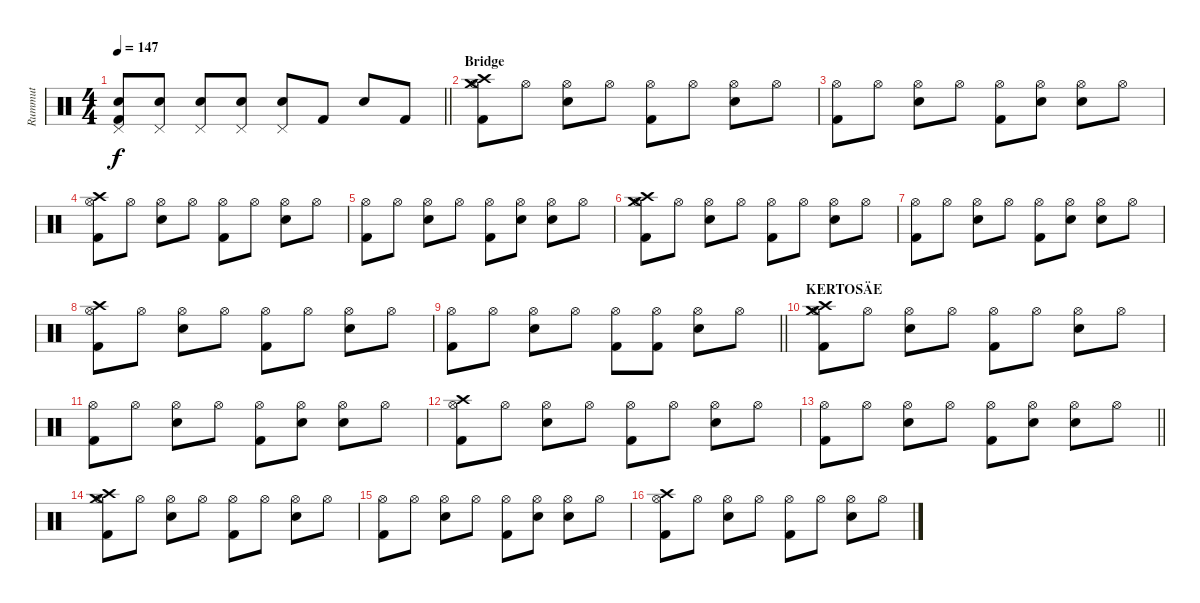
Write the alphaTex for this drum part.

\track ("Rummut" "Rummut") {instrument percussion}
\staff {score}
\articulation defaults
\ts (4 4)
\tempo 147
\clef neutral
\barLineRight lightlight
\ks c
("Pedal Hi-Hat (hit)" "Snare (hit) 2" "Kick (hit) 2").8{dy f} ("Pedal Hi-Hat (hit)" "Snare (hit) 2").8 ("Pedal Hi-Hat (hit)" "Snare (hit) 2").8 ("Pedal Hi-Hat (hit)" "Snare (hit) 2").8 ("Pedal Hi-Hat (hit)" "Snare (hit) 2").8 "Kick (hit) 2".8 "Snare (hit) 2".8 "Kick (hit) 2".8 |
\section ("" "Bridge")
("Crash high (hit)" "Crash medium (hit)" "Hi-Hat (open)" "Kick (hit) 2").8 "Hi-Hat (open)".8 ("Hi-Hat (open)" "Snare (hit) 2").8 "Hi-Hat (open)".8 ("Hi-Hat (open)" "Kick (hit) 2").8 "Hi-Hat (open)".8 ("Hi-Hat (open)" "Snare (hit) 2").8 "Hi-Hat (open)".8 |
("Hi-Hat (open)" "Kick (hit) 2").8 "Hi-Hat (open)".8 ("Hi-Hat (open)" "Snare (hit) 2").8 "Hi-Hat (open)".8 ("Hi-Hat (open)" "Kick (hit) 2").8 ("Hi-Hat (open)" "Snare (hit) 2").8 ("Hi-Hat (open)" "Snare (hit) 2").8 "Hi-Hat (open)".8 |
("Crash high (hit)" "Hi-Hat (open)" "Kick (hit) 2").8 "Hi-Hat (open)".8 ("Hi-Hat (open)" "Snare (hit) 2").8 "Hi-Hat (open)".8 ("Hi-Hat (open)" "Kick (hit) 2").8 "Hi-Hat (open)".8 ("Hi-Hat (open)" "Snare (hit) 2").8 "Hi-Hat (open)".8 |
("Hi-Hat (open)" "Kick (hit) 2").8 "Hi-Hat (open)".8 ("Hi-Hat (open)" "Snare (hit) 2").8 "Hi-Hat (open)".8 ("Hi-Hat (open)" "Kick (hit) 2").8 ("Hi-Hat (open)" "Snare (hit) 2").8 ("Hi-Hat (open)" "Snare (hit) 2").8 "Hi-Hat (open)".8 |
("Crash high (hit)" "Crash medium (hit)" "Hi-Hat (open)" "Kick (hit) 2").8 "Hi-Hat (open)".8 ("Hi-Hat (open)" "Snare (hit) 2").8 "Hi-Hat (open)".8 ("Hi-Hat (open)" "Kick (hit) 2").8 "Hi-Hat (open)".8 ("Hi-Hat (open)" "Snare (hit) 2").8 "Hi-Hat (open)".8 |
("Hi-Hat (open)" "Kick (hit) 2").8 "Hi-Hat (open)".8 ("Hi-Hat (open)" "Snare (hit) 2").8 "Hi-Hat (open)".8 ("Hi-Hat (open)" "Kick (hit) 2").8 ("Hi-Hat (open)" "Snare (hit) 2").8 ("Hi-Hat (open)" "Snare (hit) 2").8 "Hi-Hat (open)".8 |
("Crash high (hit)" "Hi-Hat (open)" "Kick (hit) 2").8 "Hi-Hat (open)".8 ("Hi-Hat (open)" "Snare (hit) 2").8 "Hi-Hat (open)".8 ("Hi-Hat (open)" "Kick (hit) 2").8 "Hi-Hat (open)".8 ("Hi-Hat (open)" "Snare (hit) 2").8 "Hi-Hat (open)".8 |
\barLineRight lightlight
("Hi-Hat (open)" "Kick (hit) 2").8 "Hi-Hat (open)".8 ("Hi-Hat (open)" "Snare (hit) 2").8 "Hi-Hat (open)".8 ("Hi-Hat (open)" "Kick (hit) 2").8 ("Hi-Hat (open)" "Kick (hit) 2").8 ("Hi-Hat (open)" "Snare (hit) 2").8 "Hi-Hat (open)".8 |
\section ("" "KERTOSÄE")
("Crash high (hit)" "Crash medium (hit)" "Hi-Hat (open)" "Kick (hit) 2").8 "Hi-Hat (open)".8 ("Hi-Hat (open)" "Snare (hit) 2").8 "Hi-Hat (open)".8 ("Hi-Hat (open)" "Kick (hit) 2").8 "Hi-Hat (open)".8 ("Hi-Hat (open)" "Snare (hit) 2").8 "Hi-Hat (open)".8 |
("Hi-Hat (open)" "Kick (hit) 2").8 "Hi-Hat (open)".8 ("Hi-Hat (open)" "Snare (hit) 2").8 "Hi-Hat (open)".8 ("Hi-Hat (open)" "Kick (hit) 2").8 ("Hi-Hat (open)" "Snare (hit) 2").8 ("Hi-Hat (open)" "Snare (hit) 2").8 "Hi-Hat (open)".8 |
("Crash high (hit)" "Hi-Hat (open)" "Kick (hit) 2").8 "Hi-Hat (open)".8 ("Hi-Hat (open)" "Snare (hit) 2").8 "Hi-Hat (open)".8 ("Hi-Hat (open)" "Kick (hit) 2").8 "Hi-Hat (open)".8 ("Hi-Hat (open)" "Snare (hit) 2").8 "Hi-Hat (open)".8 |
\barLineRight lightlight
("Hi-Hat (open)" "Kick (hit) 2").8 "Hi-Hat (open)".8 ("Hi-Hat (open)" "Snare (hit) 2").8 "Hi-Hat (open)".8 ("Hi-Hat (open)" "Kick (hit) 2").8 ("Hi-Hat (open)" "Snare (hit) 2").8 ("Hi-Hat (open)" "Snare (hit) 2").8 "Hi-Hat (open)".8 |
("Crash high (hit)" "Crash medium (hit)" "Hi-Hat (open)" "Kick (hit) 2").8 "Hi-Hat (open)".8 ("Hi-Hat (open)" "Snare (hit) 2").8 "Hi-Hat (open)".8 ("Hi-Hat (open)" "Kick (hit) 2").8 "Hi-Hat (open)".8 ("Hi-Hat (open)" "Snare (hit) 2").8 "Hi-Hat (open)".8 |
("Hi-Hat (open)" "Kick (hit) 2").8 "Hi-Hat (open)".8 ("Hi-Hat (open)" "Snare (hit) 2").8 "Hi-Hat (open)".8 ("Hi-Hat (open)" "Kick (hit) 2").8 ("Hi-Hat (open)" "Snare (hit) 2").8 ("Hi-Hat (open)" "Snare (hit) 2").8 "Hi-Hat (open)".8 |
("Crash high (hit)" "Hi-Hat (open)" "Kick (hit) 2").8 "Hi-Hat (open)".8 ("Hi-Hat (open)" "Snare (hit) 2").8 "Hi-Hat (open)".8 ("Hi-Hat (open)" "Kick (hit) 2").8 "Hi-Hat (open)".8 ("Hi-Hat (open)" "Snare (hit) 2").8 "Hi-Hat (open)".8
